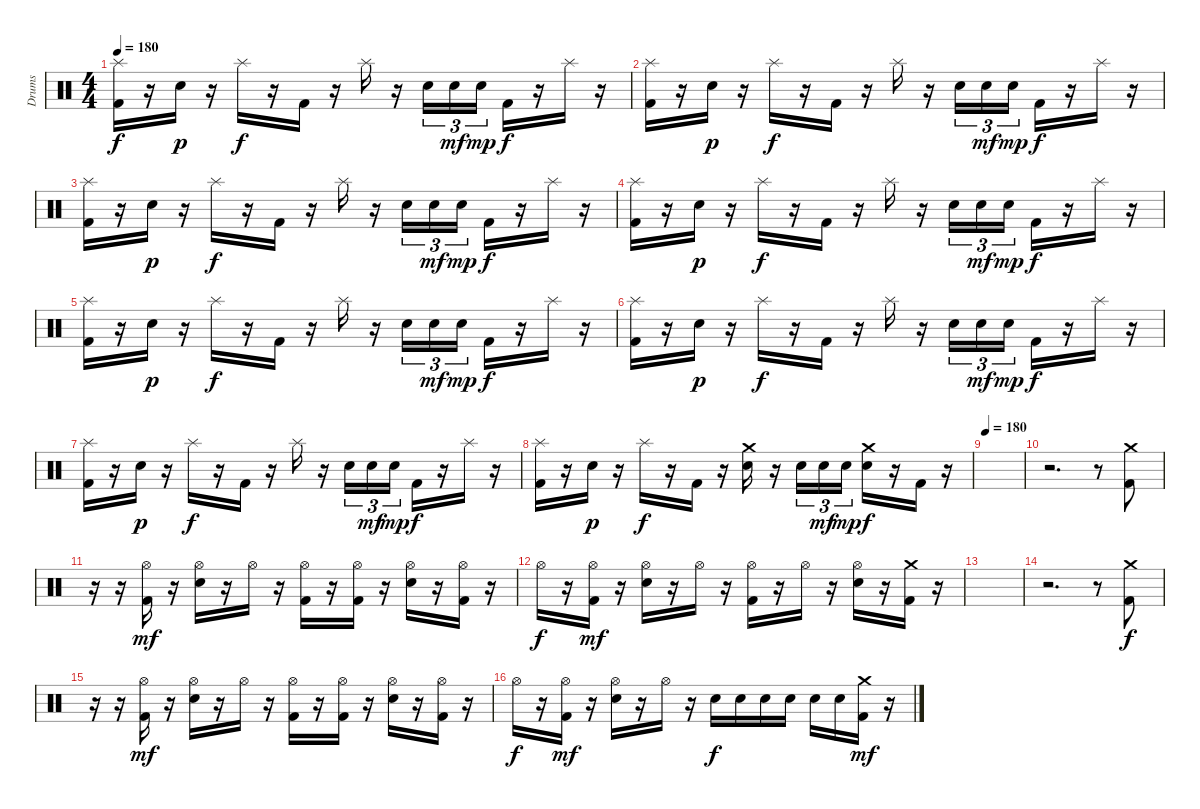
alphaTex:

\track ("Drums" "Drums") {instrument percussion}
\staff {score}
\articulation defaults
\ts (4 4)
\tempo 180
\tempo 150
\tempo 180
\clef neutral
\ks c
("Splash (hit)" "Kick (hit) 2").16{dy f} r.16 "Electric Snare (hit)"{tr (40 64)}.16{dy p} r.16 "Splash (hit)".16{dy f} r.16 "Kick (hit) 2".16 r.16 "Splash (hit)".16 r.16 "Electric Snare (hit)".16{tu (3 2)} "Electric Snare (hit)".16{tu (3 2) dy mf} "Electric Snare (hit)".16{tu (3 2) dy mp} "Kick (hit) 2".16{dy f} r.16 "Splash (hit)".16 r.16 |
("Splash (hit)" "Kick (hit) 2").16 r.16 "Electric Snare (hit)"{tr (40 64)}.16{dy p} r.16 "Splash (hit)".16{dy f} r.16 "Kick (hit) 2".16 r.16 "Splash (hit)".16 r.16 "Electric Snare (hit)".16{tu (3 2)} "Electric Snare (hit)".16{tu (3 2) dy mf} "Electric Snare (hit)".16{tu (3 2) dy mp} "Kick (hit) 2".16{dy f} r.16 "Splash (hit)".16 r.16 |
("Splash (hit)" "Kick (hit) 2").16 r.16 "Electric Snare (hit)"{tr (40 64)}.16{dy p} r.16 "Splash (hit)".16{dy f} r.16 "Kick (hit) 2".16 r.16 "Splash (hit)".16 r.16 "Electric Snare (hit)".16{tu (3 2)} "Electric Snare (hit)".16{tu (3 2) dy mf} "Electric Snare (hit)".16{tu (3 2) dy mp} "Kick (hit) 2".16{dy f} r.16 "Splash (hit)".16 r.16 |
("Splash (hit)" "Kick (hit) 2").16 r.16 "Electric Snare (hit)"{tr (40 64)}.16{dy p} r.16 "Splash (hit)".16{dy f} r.16 "Kick (hit) 2".16 r.16 "Splash (hit)".16 r.16 "Electric Snare (hit)".16{tu (3 2)} "Electric Snare (hit)".16{tu (3 2) dy mf} "Electric Snare (hit)".16{tu (3 2) dy mp} "Kick (hit) 2".16{dy f} r.16 "Splash (hit)".16 r.16 |
("Splash (hit)" "Kick (hit) 2").16 r.16 "Electric Snare (hit)"{tr (40 64)}.16{dy p} r.16 "Splash (hit)".16{dy f} r.16 "Kick (hit) 2".16 r.16 "Splash (hit)".16 r.16 "Electric Snare (hit)".16{tu (3 2)} "Electric Snare (hit)".16{tu (3 2) dy mf} "Electric Snare (hit)".16{tu (3 2) dy mp} "Kick (hit) 2".16{dy f} r.16 "Splash (hit)".16 r.16 |
("Splash (hit)" "Kick (hit) 2").16 r.16 "Electric Snare (hit)"{tr (40 64)}.16{dy p} r.16 "Splash (hit)".16{dy f} r.16 "Kick (hit) 2".16 r.16 "Splash (hit)".16 r.16 "Electric Snare (hit)".16{tu (3 2)} "Electric Snare (hit)".16{tu (3 2) dy mf} "Electric Snare (hit)".16{tu (3 2) dy mp} "Kick (hit) 2".16{dy f} r.16 "Splash (hit)".16 r.16 |
("Splash (hit)" "Kick (hit) 2").16 r.16 "Electric Snare (hit)"{tr (40 64)}.16{dy p} r.16 "Splash (hit)".16{dy f} r.16 "Kick (hit) 2".16 r.16 "Splash (hit)".16 r.16 "Electric Snare (hit)".16{tu (3 2)} "Electric Snare (hit)".16{tu (3 2) dy mf} "Electric Snare (hit)".16{tu (3 2) dy mp} "Kick (hit) 2".16{dy f} r.16 "Splash (hit)".16 r.16 |
("Splash (hit)" "Kick (hit) 2").16 r.16 "Electric Snare (hit)"{tr (40 64)}.16{dy p} r.16 "Splash (hit)".16{dy f} r.16 "Kick (hit) 2".16 r.16 ("Crash medium (hit)" "Electric Snare (hit)").16 r.16 "Electric Snare (hit)".16{tu (3 2)} "Electric Snare (hit)".16{tu (3 2) dy mf} "Electric Snare (hit)".16{tu (3 2) dy mp} ("Crash medium (hit)" "Electric Snare (hit)").16{dy f} r.16 "Kick (hit) 2".16 r.16 |
\tempo 180
|
r.2{d} r.8 ("Crash medium (hit)" "Kick (hit) 2").8 |
r.16 r.16 ("Hi-Hat (open)" "Kick (hit) 2").16{dy mf} r.16 ("Hi-Hat (open)" "Electric Snare (hit)").16 r.16 "Hi-Hat (open)".16 r.16 ("Hi-Hat (open)" "Kick (hit) 2").16 r.16 ("Hi-Hat (open)" "Kick (hit) 2").16 r.16 ("Hi-Hat (open)" "Electric Snare (hit)").16 r.16 ("Hi-Hat (open)" "Kick (hit) 2").16 r.16 |
"Hi-Hat (open)".16{dy f} r.16 ("Hi-Hat (open)" "Kick (hit) 2").16{dy mf} r.16 ("Hi-Hat (open)" "Electric Snare (hit)").16 r.16 "Hi-Hat (open)".16 r.16 ("Hi-Hat (open)" "Kick (hit) 2").16 r.16 "Hi-Hat (open)".16 r.16 ("Hi-Hat (open)" "Electric Snare (hit)").16 r.16 ("Crash medium (hit)" "Kick (hit) 2").16 r.16 |
|
r.2{d} r.8 ("Crash medium (hit)" "Kick (hit) 2").8{dy f} |
r.16 r.16 ("Hi-Hat (open)" "Kick (hit) 2").16{dy mf} r.16 ("Hi-Hat (open)" "Electric Snare (hit)").16 r.16 "Hi-Hat (open)".16 r.16 ("Hi-Hat (open)" "Kick (hit) 2").16 r.16 ("Hi-Hat (open)" "Kick (hit) 2").16 r.16 ("Hi-Hat (open)" "Electric Snare (hit)").16 r.16 ("Hi-Hat (open)" "Kick (hit) 2").16 r.16 |
"Hi-Hat (open)".16{dy f} r.16 ("Hi-Hat (open)" "Kick (hit) 2").16{dy mf} r.16 ("Hi-Hat (open)" "Electric Snare (hit)").16 r.16 "Hi-Hat (open)".16 r.16 "Electric Snare (hit)".16{dy f} "Electric Snare (hit)".16 "Electric Snare (hit)".16 "Electric Snare (hit)".16 "Electric Snare (hit)".16 "Electric Snare (hit)".16 ("Crash medium (hit)" "Kick (hit) 2").16{dy mf} r.16
